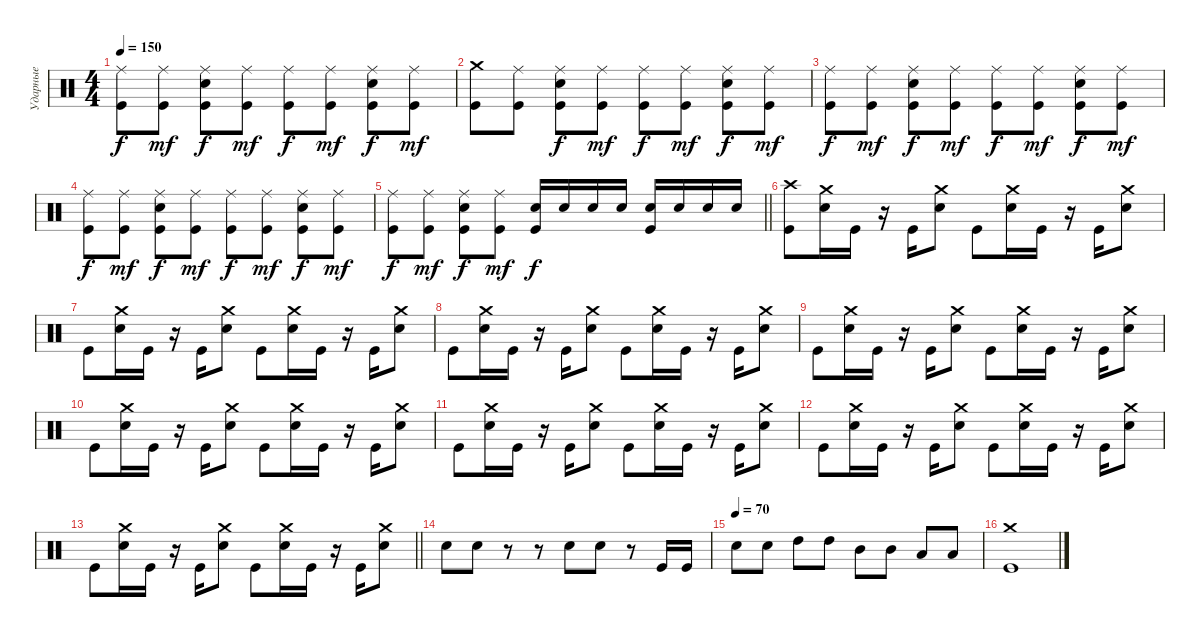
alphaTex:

\track ("Ударные" "Ударные") {instrument percussion}
\staff {score}
\articulation defaults
\ts (4 4)
\tempo 150
\clef neutral
\ks c
("Kick (hit)" "Ride (middle)").8{dy f} ("Kick (hit)" "Ride (middle)").8{dy mf} ("Electric Snare (hit)" "Kick (hit)" "Ride (middle)").8{dy f} ("Kick (hit)" "Ride (middle)").8{dy mf} ("Kick (hit)" "Ride (middle)").8{dy f} ("Kick (hit)" "Ride (middle)").8{dy mf} ("Electric Snare (hit)" "Kick (hit)" "Ride (middle)").8{dy f} ("Kick (hit)" "Ride (middle)").8{dy mf} |
("Kick (hit)" "Crash medium (hit)").8 ("Kick (hit)" "Ride (middle)").8 ("Electric Snare (hit)" "Kick (hit)" "Ride (middle)").8{dy f} ("Kick (hit)" "Ride (middle)").8{dy mf} ("Kick (hit)" "Ride (middle)").8{dy f} ("Kick (hit)" "Ride (middle)").8{dy mf} ("Electric Snare (hit)" "Kick (hit)" "Ride (middle)").8{dy f} ("Kick (hit)" "Ride (middle)").8{dy mf} |
("Kick (hit)" "Ride (middle)").8{dy f} ("Kick (hit)" "Ride (middle)").8{dy mf} ("Electric Snare (hit)" "Kick (hit)" "Ride (middle)").8{dy f} ("Kick (hit)" "Ride (middle)").8{dy mf} ("Kick (hit)" "Ride (middle)").8{dy f} ("Kick (hit)" "Ride (middle)").8{dy mf} ("Electric Snare (hit)" "Kick (hit)" "Ride (middle)").8{dy f} ("Kick (hit)" "Ride (middle)").8{dy mf} |
("Kick (hit)" "Ride (middle)").8{dy f} ("Kick (hit)" "Ride (middle)").8{dy mf} ("Electric Snare (hit)" "Kick (hit)" "Ride (middle)").8{dy f} ("Kick (hit)" "Ride (middle)").8{dy mf} ("Kick (hit)" "Ride (middle)").8{dy f} ("Kick (hit)" "Ride (middle)").8{dy mf} ("Electric Snare (hit)" "Kick (hit)" "Ride (middle)").8{dy f} ("Kick (hit)" "Ride (middle)").8{dy mf} |
\barLineRight lightlight
("Kick (hit)" "Ride (middle)").8{dy f} ("Kick (hit)" "Ride (middle)").8{dy mf} ("Electric Snare (hit)" "Kick (hit)" "Ride (middle)").8{dy f} ("Kick (hit)" "Ride (middle)").8{dy mf} ("Electric Snare (hit)" "Kick (hit)").16{dy f} "Electric Snare (hit)".16 "Electric Snare (hit)".16 "Electric Snare (hit)".16 ("Electric Snare (hit)" "Kick (hit)").16 "Electric Snare (hit)".16 "Electric Snare (hit)".16 "Electric Snare (hit)".16 |
("Crash high (hit)" "Kick (hit)").8 ("Crash medium (hit)" "Electric Snare (hit)").16 "Kick (hit)".16 r.16 "Kick (hit)".16 ("Crash medium (hit)" "Electric Snare (hit)").8 "Kick (hit)".8 ("Crash medium (hit)" "Electric Snare (hit)").16 "Kick (hit)".16 r.16 "Kick (hit)".16 ("Crash medium (hit)" "Electric Snare (hit)").8 |
"Kick (hit)".8 ("Crash medium (hit)" "Electric Snare (hit)").16 "Kick (hit)".16 r.16 "Kick (hit)".16 ("Crash medium (hit)" "Electric Snare (hit)").8 "Kick (hit)".8 ("Crash medium (hit)" "Electric Snare (hit)").16 "Kick (hit)".16 r.16 "Kick (hit)".16 ("Crash medium (hit)" "Electric Snare (hit)").8 |
"Kick (hit)".8 ("Crash medium (hit)" "Electric Snare (hit)").16 "Kick (hit)".16 r.16 "Kick (hit)".16 ("Crash medium (hit)" "Electric Snare (hit)").8 "Kick (hit)".8 ("Crash medium (hit)" "Electric Snare (hit)").16 "Kick (hit)".16 r.16 "Kick (hit)".16 ("Crash medium (hit)" "Electric Snare (hit)").8 |
"Kick (hit)".8 ("Crash medium (hit)" "Electric Snare (hit)").16 "Kick (hit)".16 r.16 "Kick (hit)".16 ("Crash medium (hit)" "Electric Snare (hit)").8 "Kick (hit)".8 ("Crash medium (hit)" "Electric Snare (hit)").16 "Kick (hit)".16 r.16 "Kick (hit)".16 ("Crash medium (hit)" "Electric Snare (hit)").8 |
"Kick (hit)".8 ("Crash medium (hit)" "Electric Snare (hit)").16 "Kick (hit)".16 r.16 "Kick (hit)".16 ("Crash medium (hit)" "Electric Snare (hit)").8 "Kick (hit)".8 ("Crash medium (hit)" "Electric Snare (hit)").16 "Kick (hit)".16 r.16 "Kick (hit)".16 ("Crash medium (hit)" "Electric Snare (hit)").8 |
"Kick (hit)".8 ("Crash medium (hit)" "Electric Snare (hit)").16 "Kick (hit)".16 r.16 "Kick (hit)".16 ("Crash medium (hit)" "Electric Snare (hit)").8 "Kick (hit)".8 ("Crash medium (hit)" "Electric Snare (hit)").16 "Kick (hit)".16 r.16 "Kick (hit)".16 ("Crash medium (hit)" "Electric Snare (hit)").8 |
"Kick (hit)".8 ("Crash medium (hit)" "Electric Snare (hit)").16 "Kick (hit)".16 r.16 "Kick (hit)".16 ("Crash medium (hit)" "Electric Snare (hit)").8 "Kick (hit)".8 ("Crash medium (hit)" "Electric Snare (hit)").16 "Kick (hit)".16 r.16 "Kick (hit)".16 ("Crash medium (hit)" "Electric Snare (hit)").8 |
\barLineRight lightlight "Kick (hit)".8
("Crash medium (hit)" "Electric Snare (hit)").16 "Kick (hit)".16 r.16 "Kick (hit)".16 ("Crash medium (hit)" "Electric Snare (hit)").8 "Kick (hit)".8 ("Crash medium (hit)" "Electric Snare (hit)").16 "Kick (hit)".16 r.16 "Kick (hit)".16 ("Crash medium (hit)" "Electric Snare (hit)").8 |
"Electric Snare (hit)".8 "Electric Snare (hit)".8 r.8 r.8 "Electric Snare (hit)".8 "Electric Snare (hit)".8 r.8 "Kick (hit)".16 "Kick (hit)".16 |
\tempo (70)
"Electric Snare (hit)".8 "Electric Snare (hit)".8 "High Tom (hit)".8 "High Tom (hit)".8 "Mid Tom (hit)".8 "Mid Tom (hit)".8 "Low Tom (hit)".8 "Low Tom (hit)".8 |
("Crash medium (hit)" "Kick (hit)").1
